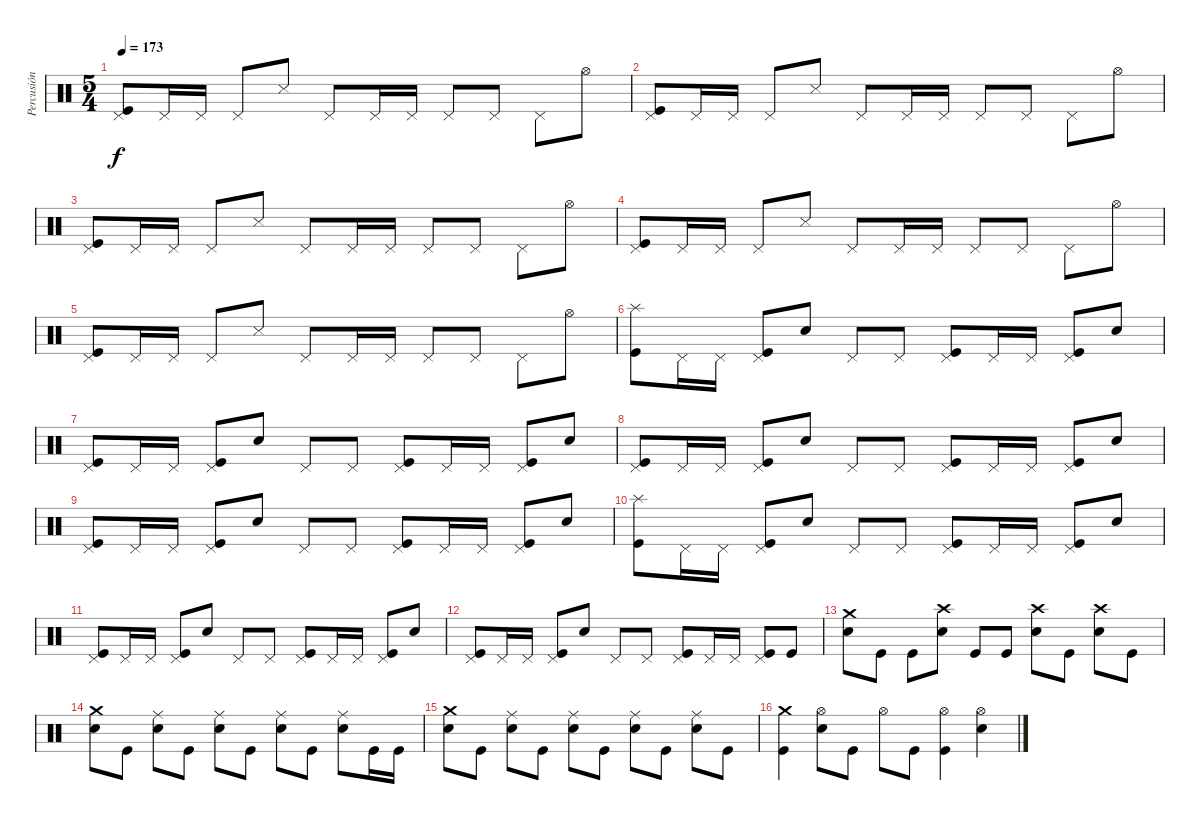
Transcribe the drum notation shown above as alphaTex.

\track ("Percusión" "Percusión") {instrument percussion}
\staff {score}
\articulation defaults
\ts (5 4)
\tempo 173
\clef neutral
\ks c
("Pedal Hi-Hat (hit)" "Kick (hit)").8{dy f} "Pedal Hi-Hat (hit)".16 "Pedal Hi-Hat (hit)".16 "Pedal Hi-Hat (hit)".8 "Metronome (hit)".8 "Pedal Hi-Hat (hit)".8 "Pedal Hi-Hat (hit)".16 "Pedal Hi-Hat (hit)".16 "Pedal Hi-Hat (hit)".8 "Pedal Hi-Hat (hit)".8 "Pedal Hi-Hat (hit)".8 "Hi-Hat (open)".8 |
("Pedal Hi-Hat (hit)" "Kick (hit)").8 "Pedal Hi-Hat (hit)".16 "Pedal Hi-Hat (hit)".16 "Pedal Hi-Hat (hit)".8 "Metronome (hit)".8 "Pedal Hi-Hat (hit)".8 "Pedal Hi-Hat (hit)".16 "Pedal Hi-Hat (hit)".16 "Pedal Hi-Hat (hit)".8 "Pedal Hi-Hat (hit)".8 "Pedal Hi-Hat (hit)".8 "Hi-Hat (open)".8 |
("Pedal Hi-Hat (hit)" "Kick (hit)").8 "Pedal Hi-Hat (hit)".16 "Pedal Hi-Hat (hit)".16 "Pedal Hi-Hat (hit)".8 "Metronome (hit)".8 "Pedal Hi-Hat (hit)".8 "Pedal Hi-Hat (hit)".16 "Pedal Hi-Hat (hit)".16 "Pedal Hi-Hat (hit)".8 "Pedal Hi-Hat (hit)".8 "Pedal Hi-Hat (hit)".8 "Hi-Hat (open)".8 |
("Pedal Hi-Hat (hit)" "Kick (hit)").8 "Pedal Hi-Hat (hit)".16 "Pedal Hi-Hat (hit)".16 "Pedal Hi-Hat (hit)".8 "Metronome (hit)".8 "Pedal Hi-Hat (hit)".8 "Pedal Hi-Hat (hit)".16 "Pedal Hi-Hat (hit)".16 "Pedal Hi-Hat (hit)".8 "Pedal Hi-Hat (hit)".8 "Pedal Hi-Hat (hit)".8 "Hi-Hat (open)".8 |
("Pedal Hi-Hat (hit)" "Kick (hit)").8 "Pedal Hi-Hat (hit)".16 "Pedal Hi-Hat (hit)".16 "Pedal Hi-Hat (hit)".8 "Metronome (hit)".8 "Pedal Hi-Hat (hit)".8 "Pedal Hi-Hat (hit)".16 "Pedal Hi-Hat (hit)".16 "Pedal Hi-Hat (hit)".8 "Pedal Hi-Hat (hit)".8 "Pedal Hi-Hat (hit)".8 "Hi-Hat (open)".8 |
("Splash (hit)" "Kick (hit)").8 "Pedal Hi-Hat (hit)".16 "Pedal Hi-Hat (hit)".16 ("Pedal Hi-Hat (hit)" "Kick (hit)").8 "Electric Snare (hit)".8 "Pedal Hi-Hat (hit)".8 "Pedal Hi-Hat (hit)".8 ("Pedal Hi-Hat (hit)" "Kick (hit)").8 "Pedal Hi-Hat (hit)".16 "Pedal Hi-Hat (hit)".16 ("Pedal Hi-Hat (hit)" "Kick (hit)").8 "Electric Snare (hit)".8 |
("Pedal Hi-Hat (hit)" "Kick (hit)").8 "Pedal Hi-Hat (hit)".16 "Pedal Hi-Hat (hit)".16 ("Pedal Hi-Hat (hit)" "Kick (hit)").8 "Electric Snare (hit)".8 "Pedal Hi-Hat (hit)".8 "Pedal Hi-Hat (hit)".8 ("Pedal Hi-Hat (hit)" "Kick (hit)").8 "Pedal Hi-Hat (hit)".16 "Pedal Hi-Hat (hit)".16 ("Pedal Hi-Hat (hit)" "Kick (hit)").8 "Electric Snare (hit)".8 |
("Pedal Hi-Hat (hit)" "Kick (hit)").8 "Pedal Hi-Hat (hit)".16 "Pedal Hi-Hat (hit)".16 ("Pedal Hi-Hat (hit)" "Kick (hit)").8 "Electric Snare (hit)".8 "Pedal Hi-Hat (hit)".8 "Pedal Hi-Hat (hit)".8 ("Pedal Hi-Hat (hit)" "Kick (hit)").8 "Pedal Hi-Hat (hit)".16 "Pedal Hi-Hat (hit)".16 ("Pedal Hi-Hat (hit)" "Kick (hit)").8 "Electric Snare (hit)".8 |
("Pedal Hi-Hat (hit)" "Kick (hit)").8 "Pedal Hi-Hat (hit)".16 "Pedal Hi-Hat (hit)".16 ("Pedal Hi-Hat (hit)" "Kick (hit)").8 "Electric Snare (hit)".8 "Pedal Hi-Hat (hit)".8 "Pedal Hi-Hat (hit)".8 ("Pedal Hi-Hat (hit)" "Kick (hit)").8 "Pedal Hi-Hat (hit)".16 "Pedal Hi-Hat (hit)".16 ("Pedal Hi-Hat (hit)" "Kick (hit)").8 "Electric Snare (hit)".8 |
("Splash (hit)" "Kick (hit)").8 "Pedal Hi-Hat (hit)".16 "Pedal Hi-Hat (hit)".16 ("Pedal Hi-Hat (hit)" "Kick (hit)").8 "Electric Snare (hit)".8 "Pedal Hi-Hat (hit)".8 "Pedal Hi-Hat (hit)".8 ("Pedal Hi-Hat (hit)" "Kick (hit)").8 "Pedal Hi-Hat (hit)".16 "Pedal Hi-Hat (hit)".16 ("Pedal Hi-Hat (hit)" "Kick (hit)").8 "Electric Snare (hit)".8 |
("Pedal Hi-Hat (hit)" "Kick (hit)").8 "Pedal Hi-Hat (hit)".16 "Pedal Hi-Hat (hit)".16 ("Pedal Hi-Hat (hit)" "Kick (hit)").8 "Electric Snare (hit)".8 "Pedal Hi-Hat (hit)".8 "Pedal Hi-Hat (hit)".8 ("Pedal Hi-Hat (hit)" "Kick (hit)").8 "Pedal Hi-Hat (hit)".16 "Pedal Hi-Hat (hit)".16 ("Pedal Hi-Hat (hit)" "Kick (hit)").8 "Electric Snare (hit)".8 |
("Pedal Hi-Hat (hit)" "Kick (hit)").8 "Pedal Hi-Hat (hit)".16 "Pedal Hi-Hat (hit)".16 ("Pedal Hi-Hat (hit)" "Kick (hit)").8 "Electric Snare (hit)".8 "Pedal Hi-Hat (hit)".8 "Pedal Hi-Hat (hit)".8 ("Pedal Hi-Hat (hit)" "Kick (hit)").8 "Pedal Hi-Hat (hit)".16 "Pedal Hi-Hat (hit)".16 ("Pedal Hi-Hat (hit)" "Kick (hit)").8 "Kick (hit)".8 |
("Crash medium (hit)" "Electric Snare (hit)").8 "Kick (hit)".8 "Kick (hit)".8 ("Crash high (hit)" "Electric Snare (hit)").8 "Kick (hit)".8 "Kick (hit)".8 ("Crash high (hit)" "Electric Snare (hit)").8 "Kick (hit)".8 ("Crash high (hit)" "Electric Snare (hit)").8 "Kick (hit)".8 |
("Crash medium (hit)" "Electric Snare (hit)").8 "Kick (hit)".8 ("Ride (middle)" "Electric Snare (hit)").8 "Kick (hit)".8 ("Ride (middle)" "Electric Snare (hit)").8 "Kick (hit)".8 ("Ride (middle)" "Electric Snare (hit)").8 "Kick (hit)".8 ("Ride (middle)" "Electric Snare (hit)").8 "Kick (hit)".16 "Kick (hit)".16 |
("Crash medium (hit)" "Electric Snare (hit)").8 "Kick (hit)".8 ("Ride (middle)" "Electric Snare (hit)").8 "Kick (hit)".8 ("Ride (middle)" "Electric Snare (hit)").8 "Kick (hit)".8 ("Ride (middle)" "Electric Snare (hit)").8 "Kick (hit)".8 ("Ride (middle)" "Electric Snare (hit)").8 "Kick (hit)".8 |
("Crash medium (hit)" "Kick (hit)").4 ("Hi-Hat (open)" "Electric Snare (hit)").8 "Kick (hit)".8 "Hi-Hat (open)".8 "Kick (hit)".8 ("Hi-Hat (open)" "Kick (hit)").4 ("Hi-Hat (open)" "Electric Snare (hit)").4
